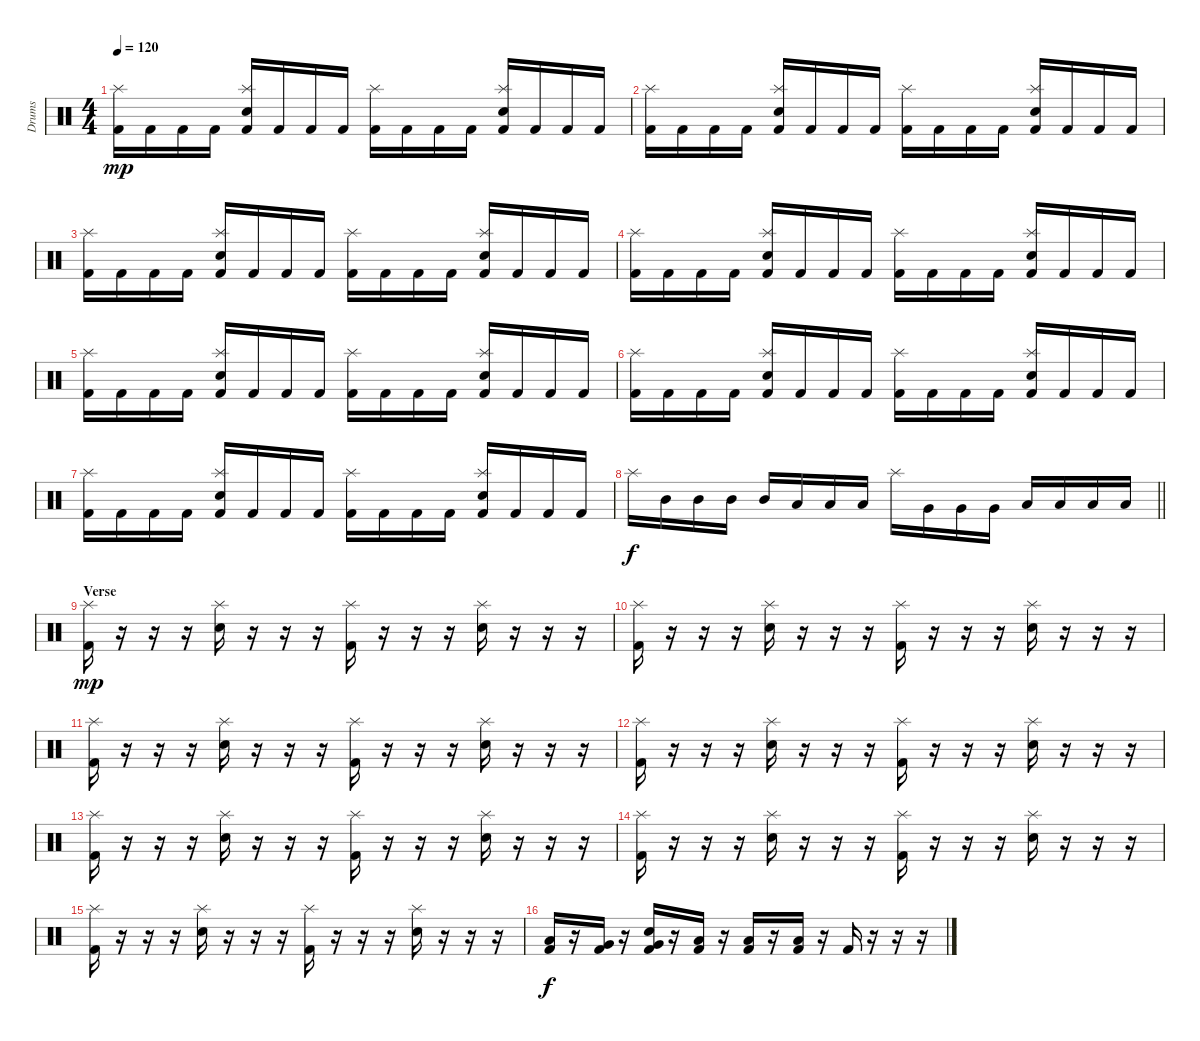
\track ("Drums" "Drums") {instrument percussion}
\staff {score}
\articulation defaults
\ts (4 4)
\tempo 120
\clef neutral
\ks c
("Kick (hit) 2" "Splash (hit)").16{dy mp} "Kick (hit) 2".16 "Kick (hit) 2".16 "Kick (hit) 2".16 ("Kick (hit) 2" "Splash (hit)" "Snare (hit) 2").16 "Kick (hit) 2".16 "Kick (hit) 2".16 "Kick (hit) 2".16 ("Kick (hit) 2" "Splash (hit)").16 "Kick (hit) 2".16 "Kick (hit) 2".16 "Kick (hit) 2".16 ("Kick (hit) 2" "Splash (hit)" "Snare (hit) 2").16 "Kick (hit) 2".16 "Kick (hit) 2".16 "Kick (hit) 2".16 |
("Kick (hit) 2" "Splash (hit)").16 "Kick (hit) 2".16 "Kick (hit) 2".16 "Kick (hit) 2".16 ("Kick (hit) 2" "Splash (hit)" "Snare (hit) 2").16 "Kick (hit) 2".16 "Kick (hit) 2".16 "Kick (hit) 2".16 ("Kick (hit) 2" "Splash (hit)").16 "Kick (hit) 2".16 "Kick (hit) 2".16 "Kick (hit) 2".16 ("Kick (hit) 2" "Splash (hit)" "Snare (hit) 2").16 "Kick (hit) 2".16 "Kick (hit) 2".16 "Kick (hit) 2".16 |
("Kick (hit) 2" "Splash (hit)").16 "Kick (hit) 2".16 "Kick (hit) 2".16 "Kick (hit) 2".16 ("Kick (hit) 2" "Splash (hit)" "Snare (hit) 2").16 "Kick (hit) 2".16 "Kick (hit) 2".16 "Kick (hit) 2".16 ("Kick (hit) 2" "Splash (hit)").16 "Kick (hit) 2".16 "Kick (hit) 2".16 "Kick (hit) 2".16 ("Kick (hit) 2" "Splash (hit)" "Snare (hit) 2").16 "Kick (hit) 2".16 "Kick (hit) 2".16 "Kick (hit) 2".16 |
("Kick (hit) 2" "Splash (hit)").16 "Kick (hit) 2".16 "Kick (hit) 2".16 "Kick (hit) 2".16 ("Kick (hit) 2" "Splash (hit)" "Snare (hit) 2").16 "Kick (hit) 2".16 "Kick (hit) 2".16 "Kick (hit) 2".16 ("Kick (hit) 2" "Splash (hit)").16 "Kick (hit) 2".16 "Kick (hit) 2".16 "Kick (hit) 2".16 ("Kick (hit) 2" "Splash (hit)" "Snare (hit) 2").16 "Kick (hit) 2".16 "Kick (hit) 2".16 "Kick (hit) 2".16 |
("Kick (hit) 2" "Splash (hit)").16 "Kick (hit) 2".16 "Kick (hit) 2".16 "Kick (hit) 2".16 ("Kick (hit) 2" "Splash (hit)" "Snare (hit) 2").16 "Kick (hit) 2".16 "Kick (hit) 2".16 "Kick (hit) 2".16 ("Kick (hit) 2" "Splash (hit)").16 "Kick (hit) 2".16 "Kick (hit) 2".16 "Kick (hit) 2".16 ("Kick (hit) 2" "Splash (hit)" "Snare (hit) 2").16 "Kick (hit) 2".16 "Kick (hit) 2".16 "Kick (hit) 2".16 |
("Kick (hit) 2" "Splash (hit)").16 "Kick (hit) 2".16 "Kick (hit) 2".16 "Kick (hit) 2".16 ("Kick (hit) 2" "Splash (hit)" "Snare (hit) 2").16 "Kick (hit) 2".16 "Kick (hit) 2".16 "Kick (hit) 2".16 ("Kick (hit) 2" "Splash (hit)").16 "Kick (hit) 2".16 "Kick (hit) 2".16 "Kick (hit) 2".16 ("Kick (hit) 2" "Splash (hit)" "Snare (hit) 2").16 "Kick (hit) 2".16 "Kick (hit) 2".16 "Kick (hit) 2".16 |
("Kick (hit) 2" "Splash (hit)").16 "Kick (hit) 2".16 "Kick (hit) 2".16 "Kick (hit) 2".16 ("Kick (hit) 2" "Splash (hit)" "Snare (hit) 2").16 "Kick (hit) 2".16 "Kick (hit) 2".16 "Kick (hit) 2".16 ("Kick (hit) 2" "Splash (hit)").16 "Kick (hit) 2".16 "Kick (hit) 2".16 "Kick (hit) 2".16 ("Kick (hit) 2" "Splash (hit)" "Snare (hit) 2").16 "Kick (hit) 2".16 "Kick (hit) 2".16 "Kick (hit) 2".16 |
\barLineRight lightlight "Splash (hit)".16{dy f} "Mid Tom (hit)".16 "Mid Tom (hit)".16 "Mid Tom (hit)".16 "Mid Tom (hit)".16 "Low Tom (hit)".16 "Low Tom (hit)".16 "Low Tom (hit)".16 "Splash (hit)".16 "Very Low Tom (hit)".16 "Very Low Tom (hit)".16 "Very Low Tom (hit)".16 "Low Floor Tom (hit)".16 "Low Floor Tom (hit)".16 "Low Floor Tom (hit)".16 "Low Floor Tom (hit)".16
|
\section ("" "Verse")
("Kick (hit) 2" "Splash (hit)").16{dy mp} r.16 r.16 r.16 ("Splash (hit)" "Snare (hit) 2").16 r.16 r.16 r.16 ("Kick (hit) 2" "Splash (hit)").16 r.16 r.16 r.16 ("Splash (hit)" "Snare (hit) 2").16 r.16 r.16 r.16 |
("Kick (hit) 2" "Splash (hit)").16 r.16 r.16 r.16 ("Splash (hit)" "Snare (hit) 2").16 r.16 r.16 r.16 ("Kick (hit) 2" "Splash (hit)").16 r.16 r.16 r.16 ("Splash (hit)" "Snare (hit) 2").16 r.16 r.16 r.16 |
("Kick (hit) 2" "Splash (hit)").16 r.16 r.16 r.16 ("Splash (hit)" "Snare (hit) 2").16 r.16 r.16 r.16 ("Kick (hit) 2" "Splash (hit)").16 r.16 r.16 r.16 ("Splash (hit)" "Snare (hit) 2").16 r.16 r.16 r.16 |
("Kick (hit) 2" "Splash (hit)").16 r.16 r.16 r.16 ("Splash (hit)" "Snare (hit) 2").16 r.16 r.16 r.16 ("Kick (hit) 2" "Splash (hit)").16 r.16 r.16 r.16 ("Splash (hit)" "Snare (hit) 2").16 r.16 r.16 r.16 |
("Kick (hit) 2" "Splash (hit)").16 r.16 r.16 r.16 ("Splash (hit)" "Snare (hit) 2").16 r.16 r.16 r.16 ("Kick (hit) 2" "Splash (hit)").16 r.16 r.16 r.16 ("Splash (hit)" "Snare (hit) 2").16 r.16 r.16 r.16 |
("Kick (hit) 2" "Splash (hit)").16 r.16 r.16 r.16 ("Splash (hit)" "Snare (hit) 2").16 r.16 r.16 r.16 ("Kick (hit) 2" "Splash (hit)").16 r.16 r.16 r.16 ("Splash (hit)" "Snare (hit) 2").16 r.16 r.16 r.16 |
("Kick (hit) 2" "Splash (hit)").16 r.16 r.16 r.16 ("Splash (hit)" "Snare (hit) 2").16 r.16 r.16 r.16 ("Kick (hit) 2" "Splash (hit)").16 r.16 r.16 r.16 ("Splash (hit)" "Snare (hit) 2").16 r.16 r.16 r.16 |
("Kick (hit) 2" "Low Tom (hit)").16{dy f} r.16 ("Kick (hit) 2" "Very Low Tom (hit)").16 r.16 ("Kick (hit) 2" "Very Low Tom (hit)" "Snare (hit) 2").16 r.16 ("Kick (hit) 2" "Low Floor Tom (hit)").16 r.16 ("Kick (hit) 2" "Low Floor Tom (hit)").16 r.16 ("Kick (hit) 2" "Low Floor Tom (hit)").16 r.16 "Kick (hit) 2".16 r.16 r.16 r.16
